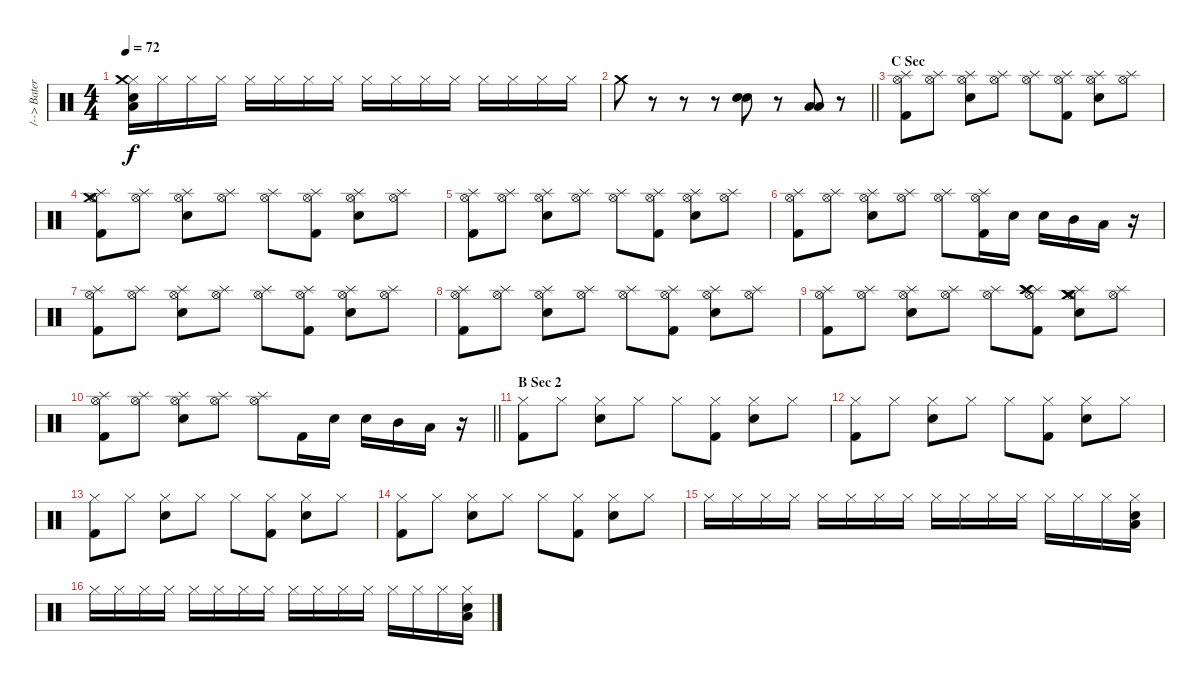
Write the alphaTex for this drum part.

\track ("/--> Bateria <---/" "/--> Bater") {instrument percussion}
\staff {score}
\articulation defaults
\ts (4 4)
\tempo 72
\clef neutral
\ks c
("Hi-Hat (closed)" "Crash medium (hit)" "Snare (hit) 2" "Low Tom (hit)").16{dy f} "Hi-Hat (closed)".16 "Hi-Hat (closed)".16 "Hi-Hat (closed)".16 "Hi-Hat (closed)".16 "Hi-Hat (closed)".16 "Hi-Hat (closed)".16 "Hi-Hat (closed)".16 "Hi-Hat (closed)".16 "Hi-Hat (closed)".16 "Hi-Hat (closed)".16 "Hi-Hat (closed)".16 "Hi-Hat (closed)".16 "Hi-Hat (closed)".16 "Hi-Hat (closed)".16 "Hi-Hat (closed)".16 |
\barLineRight lightlight "Crash medium (hit)".8
r.8 r.8 r.8 ("Electric Snare (hit)" "Electric Snare (hit)").8 r.8 ("Low Tom (hit)" "Low Tom (hit)").8 r.8 |
\section ("" "C Sec")
("Hi-Hat (open)" "Splash (hit)" "Kick (hit) 2").8 ("Hi-Hat (open)" "Splash (hit)").8 ("Hi-Hat (open)" "Splash (hit)" "Electric Snare (hit)").8 ("Hi-Hat (open)" "Splash (hit)").8 ("Hi-Hat (open)" "Splash (hit)").8 ("Hi-Hat (open)" "Splash (hit)" "Kick (hit) 2").8 ("Hi-Hat (open)" "Splash (hit)" "Electric Snare (hit)").8 ("Hi-Hat (open)" "Splash (hit)").8 |
("Hi-Hat (open)" "Splash (hit)" "Crash medium (hit)" "Kick (hit) 2").8 ("Hi-Hat (open)" "Splash (hit)").8 ("Hi-Hat (open)" "Splash (hit)" "Electric Snare (hit)").8 ("Hi-Hat (open)" "Splash (hit)").8 ("Hi-Hat (open)" "Splash (hit)").8 ("Hi-Hat (open)" "Splash (hit)" "Kick (hit) 2").8 ("Hi-Hat (open)" "Splash (hit)" "Electric Snare (hit)").8 ("Hi-Hat (open)" "Splash (hit)").8 |
("Hi-Hat (open)" "Splash (hit)" "Kick (hit) 2").8 ("Hi-Hat (open)" "Splash (hit)").8 ("Hi-Hat (open)" "Splash (hit)" "Electric Snare (hit)").8 ("Hi-Hat (open)" "Splash (hit)").8 ("Hi-Hat (open)" "Splash (hit)").8 ("Hi-Hat (open)" "Splash (hit)" "Kick (hit) 2").8 ("Hi-Hat (open)" "Splash (hit)" "Electric Snare (hit)").8 ("Hi-Hat (open)" "Splash (hit)").8 |
("Hi-Hat (open)" "Splash (hit)" "Kick (hit) 2").8 ("Hi-Hat (open)" "Splash (hit)").8 ("Hi-Hat (open)" "Splash (hit)" "Electric Snare (hit)").8 ("Hi-Hat (open)" "Splash (hit)").8 ("Hi-Hat (open)" "Splash (hit)").8 ("Hi-Hat (open)" "Splash (hit)" "Kick (hit) 2").16 "Electric Snare (hit)".16 "Electric Snare (hit)".16 "Mid Tom (hit)".16 "Low Tom (hit)".16 r.16 |
("Hi-Hat (open)" "Splash (hit)" "Kick (hit) 2").8 ("Hi-Hat (open)" "Splash (hit)").8 ("Hi-Hat (open)" "Splash (hit)" "Electric Snare (hit)").8 ("Hi-Hat (open)" "Splash (hit)").8 ("Hi-Hat (open)" "Splash (hit)").8 ("Hi-Hat (open)" "Splash (hit)" "Kick (hit) 2").8 ("Hi-Hat (open)" "Splash (hit)" "Electric Snare (hit)").8 ("Hi-Hat (open)" "Splash (hit)").8 |
("Hi-Hat (open)" "Splash (hit)" "Kick (hit) 2").8 ("Hi-Hat (open)" "Splash (hit)").8 ("Hi-Hat (open)" "Splash (hit)" "Electric Snare (hit)").8 ("Hi-Hat (open)" "Splash (hit)").8 ("Hi-Hat (open)" "Splash (hit)").8 ("Hi-Hat (open)" "Splash (hit)" "Kick (hit) 2").8 ("Hi-Hat (open)" "Splash (hit)" "Electric Snare (hit)").8 ("Hi-Hat (open)" "Splash (hit)").8 |
("Hi-Hat (open)" "Splash (hit)" "Kick (hit) 2").8 ("Hi-Hat (open)" "Splash (hit)").8 ("Hi-Hat (open)" "Splash (hit)" "Electric Snare (hit)").8 ("Hi-Hat (open)" "Splash (hit)").8 ("Hi-Hat (open)" "Splash (hit)").8 ("Hi-Hat (open)" "Splash (hit)" "Crash high (hit)" "Crash high (hit)" "Kick (hit) 2").8 ("Hi-Hat (open)" "Splash (hit)" "Crash medium (hit)" "Crash medium (hit)" "Electric Snare (hit)").8 ("Hi-Hat (open)" "Splash (hit)").8 |
\barLineRight lightlight
("Hi-Hat (open)" "Splash (hit)" "Kick (hit) 2").8 ("Hi-Hat (open)" "Splash (hit)").8 ("Hi-Hat (open)" "Splash (hit)" "Electric Snare (hit)").8 ("Hi-Hat (open)" "Splash (hit)").8 ("Hi-Hat (open)" "Splash (hit)").8 "Kick (hit) 2".16 "Electric Snare (hit)".16 "Electric Snare (hit)".16 "Mid Tom (hit)".16 "Low Tom (hit)".16 r.16 |
\section ("" "B Sec 2")
("Hi-Hat (closed)" "Kick (hit) 2").8 "Hi-Hat (closed)".8 ("Hi-Hat (closed)" "Electric Snare (hit)").8 "Hi-Hat (closed)".8 "Hi-Hat (closed)".8 ("Hi-Hat (closed)" "Kick (hit) 2").8 ("Hi-Hat (closed)" "Electric Snare (hit)").8 "Hi-Hat (closed)".8 |
("Hi-Hat (closed)" "Kick (hit) 2").8 "Hi-Hat (closed)".8 ("Hi-Hat (closed)" "Electric Snare (hit)").8 "Hi-Hat (closed)".8 "Hi-Hat (closed)".8 ("Hi-Hat (closed)" "Kick (hit) 2").8 ("Hi-Hat (closed)" "Electric Snare (hit)").8 "Hi-Hat (closed)".8 |
("Hi-Hat (closed)" "Kick (hit) 2").8 "Hi-Hat (closed)".8 ("Hi-Hat (closed)" "Electric Snare (hit)").8 "Hi-Hat (closed)".8 "Hi-Hat (closed)".8 ("Hi-Hat (closed)" "Kick (hit) 2").8 ("Hi-Hat (closed)" "Electric Snare (hit)").8 "Hi-Hat (closed)".8 |
("Hi-Hat (closed)" "Kick (hit) 2").8 "Hi-Hat (closed)".8 ("Hi-Hat (closed)" "Electric Snare (hit)").8 "Hi-Hat (closed)".8 "Hi-Hat (closed)".8 ("Hi-Hat (closed)" "Kick (hit) 2").8 ("Hi-Hat (closed)" "Electric Snare (hit)").8 "Hi-Hat (closed)".8 |
"Hi-Hat (closed)".16 "Hi-Hat (closed)".16 "Hi-Hat (closed)".16{txt ""} "Hi-Hat (closed)".16 "Hi-Hat (closed)".16 "Hi-Hat (closed)".16 "Hi-Hat (closed)".16 "Hi-Hat (closed)".16 "Hi-Hat (closed)".16 "Hi-Hat (closed)".16 "Hi-Hat (closed)".16 "Hi-Hat (closed)".16 "Hi-Hat (closed)".16 "Hi-Hat (closed)".16 "Hi-Hat (closed)".16 ("Hi-Hat (closed)" "Snare (hit) 2" "Low Tom (hit)").16 |
"Hi-Hat (closed)".16 "Hi-Hat (closed)".16 "Hi-Hat (closed)".16 "Hi-Hat (closed)".16 "Hi-Hat (closed)".16 "Hi-Hat (closed)".16 "Hi-Hat (closed)".16 "Hi-Hat (closed)".16 "Hi-Hat (closed)".16 "Hi-Hat (closed)".16 "Hi-Hat (closed)".16 "Hi-Hat (closed)".16 "Hi-Hat (closed)".16 "Hi-Hat (closed)".16 "Hi-Hat (closed)".16 ("Hi-Hat (closed)" "Snare (hit) 2" "Low Tom (hit)").16
